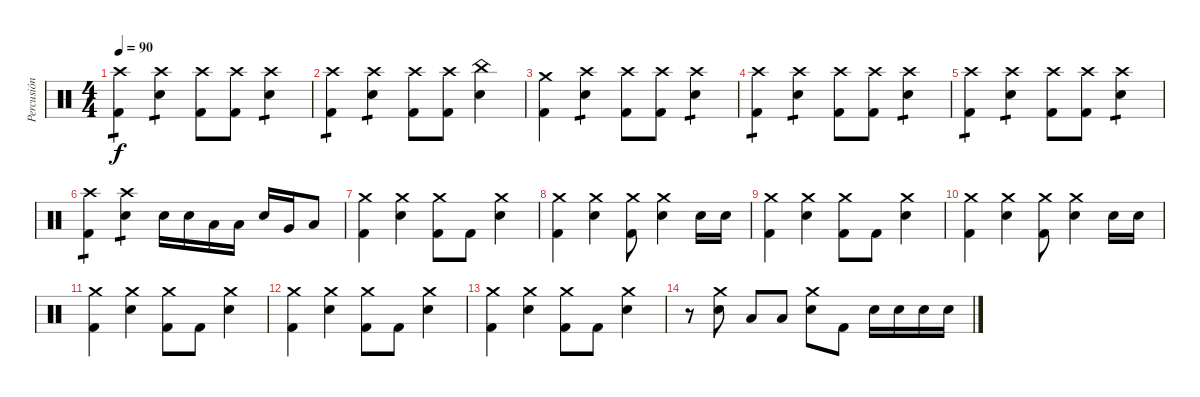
\track ("Percusión" "Percusión") {instrument percussion}
\staff {score}
\articulation defaults
\ts (4 4)
\tempo 90
\clef neutral
\ks c
("Crash high (hit)" "Kick (hit) 2").4{tp 1 dy f} ("Crash high (hit)" "Snare (hit) 2").4{tp 1} ("Crash high (hit)" "Kick (hit) 2").8 ("Crash high (hit)" "Kick (hit) 2").8 ("Crash high (hit)" "Snare (hit) 2").4{tp 1} |
("Crash high (hit)" "Kick (hit) 2").4{tp 1} ("Crash high (hit)" "Snare (hit) 2").4{tp 1} ("Crash high (hit)" "Kick (hit) 2").8 ("Crash high (hit)" "Kick (hit) 2").8 ("China (hit)" "Snare (hit) 2").4 |
("Crash medium (hit)" "Kick (hit) 2").4 ("Crash high (hit)" "Snare (hit) 2").4{tp 1} ("Crash high (hit)" "Kick (hit) 2").8 ("Crash high (hit)" "Kick (hit) 2").8 ("Crash high (hit)" "Snare (hit) 2").4{tp 1} |
("Crash high (hit)" "Kick (hit) 2").4{tp 1} ("Crash high (hit)" "Snare (hit) 2").4{tp 1} ("Crash high (hit)" "Kick (hit) 2").8 ("Crash high (hit)" "Kick (hit) 2").8 ("Crash high (hit)" "Snare (hit) 2").4{tp 1} |
("Crash high (hit)" "Kick (hit) 2").4{tp 1} ("Crash high (hit)" "Snare (hit) 2").4{tp 1} ("Crash high (hit)" "Kick (hit) 2").8 ("Crash high (hit)" "Kick (hit) 2").8 ("Crash high (hit)" "Snare (hit) 2").4{tp 1} |
("Crash high (hit)" "Kick (hit) 2").4{tp 1} ("Crash high (hit)" "Snare (hit) 2").4{tp 1} "Electric Snare (hit)".16 "Electric Snare (hit)".16 "Low Tom (hit)".16 "Low Tom (hit)".16 "Electric Snare (hit)".16 "Very Low Tom (hit)".16 "Low Floor Tom (hit)".8 |
("Crash medium (hit)" "Kick (hit) 2").4 ("Crash medium (hit)" "Snare (hit) 2").4 ("Crash medium (hit)" "Kick (hit) 2").8 "Kick (hit) 2".8 ("Crash medium (hit)" "Snare (hit) 2").4 |
("Crash medium (hit)" "Kick (hit) 2").4 ("Crash medium (hit)" "Snare (hit) 2").4 ("Crash medium (hit)" "Kick (hit) 2").8 ("Crash medium (hit)" "Snare (hit) 2").4 "Snare (hit) 2".16 "Snare (hit) 2".16 |
("Crash medium (hit)" "Kick (hit) 2").4 ("Crash medium (hit)" "Snare (hit) 2").4 ("Crash medium (hit)" "Kick (hit) 2").8 "Kick (hit) 2".8 ("Crash medium (hit)" "Snare (hit) 2").4 |
("Crash medium (hit)" "Kick (hit) 2").4 ("Crash medium (hit)" "Snare (hit) 2").4 ("Crash medium (hit)" "Kick (hit) 2").8 ("Crash medium (hit)" "Snare (hit) 2").4 "Snare (hit) 2".16 "Snare (hit) 2".16 |
("Crash medium (hit)" "Kick (hit) 2").4 ("Crash medium (hit)" "Snare (hit) 2").4 ("Crash medium (hit)" "Kick (hit) 2").8 "Kick (hit) 2".8 ("Crash medium (hit)" "Snare (hit) 2").4 |
("Crash medium (hit)" "Kick (hit) 2").4 ("Crash medium (hit)" "Snare (hit) 2").4 ("Crash medium (hit)" "Kick (hit) 2").8 "Kick (hit) 2".8 ("Crash medium (hit)" "Snare (hit) 2").4 |
("Crash medium (hit)" "Kick (hit) 2").4 ("Crash medium (hit)" "Snare (hit) 2").4 ("Crash medium (hit)" "Kick (hit) 2").8 "Kick (hit) 2".8 ("Crash medium (hit)" "Snare (hit) 2").4 |
r.8 ("Crash medium (hit)" "Snare (hit) 2").8 "Low Tom (hit)".8 "Low Tom (hit)".8 ("Crash medium (hit)" "Snare (hit) 2").8 "Kick (hit) 2".8 "Snare (hit) 2".16 "Snare (hit) 2".16 "Snare (hit) 2".16 "Snare (hit) 2".16
